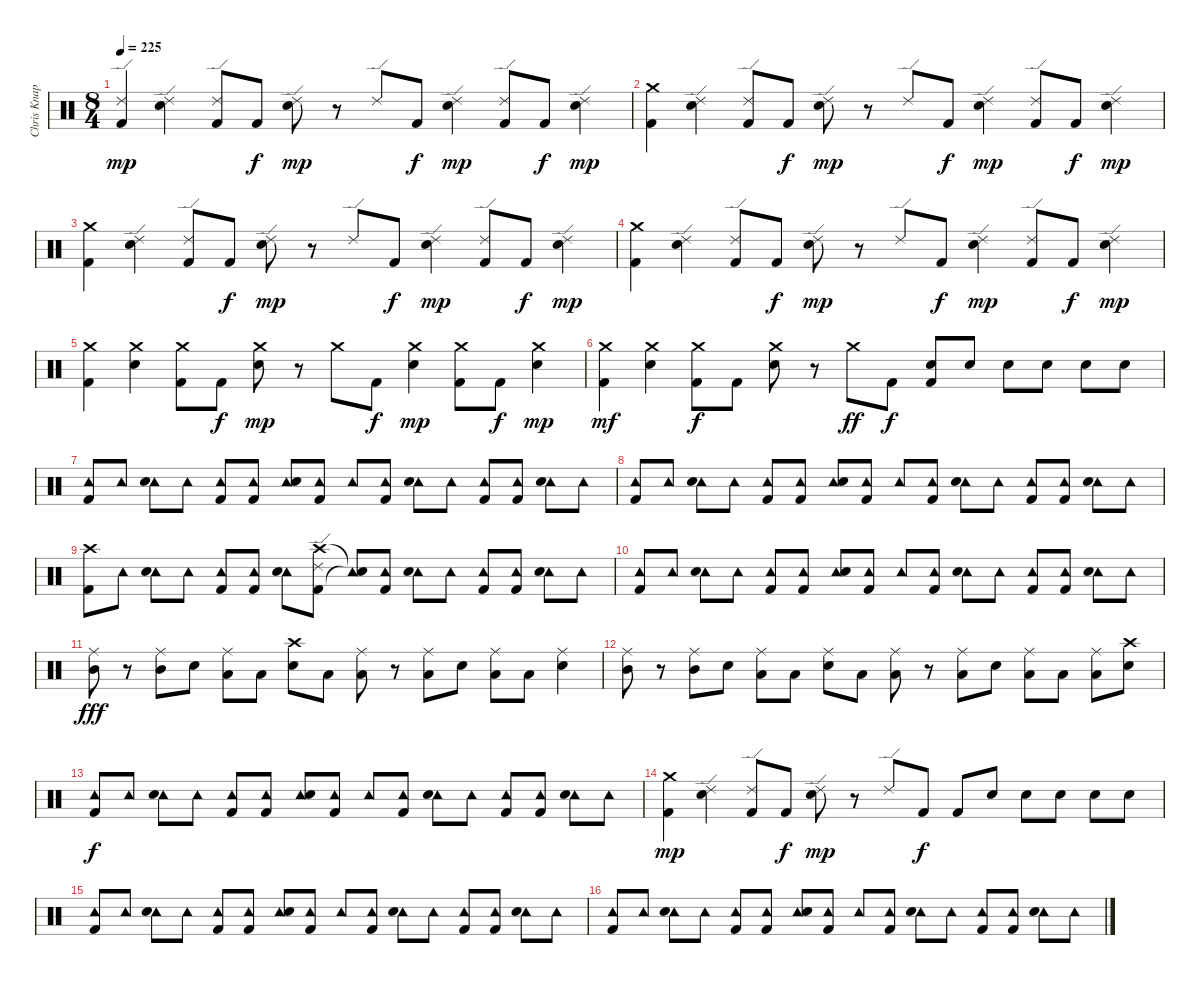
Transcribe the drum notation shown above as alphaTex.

\track ("Chris Knapp" "Chris Knap") {instrument percussion}
\staff {score}
\articulation defaults
\ts (8 4)
\tempo 225
\clef neutral
\ks c
("Ride (edge) 2" "Kick (hit) 2").4{dy mp} ("Ride (edge) 2" "Electric Snare (hit)").4 ("Ride (edge) 2" "Kick (hit) 2").8 "Kick (hit) 2".8{dy f} ("Ride (edge) 2" "Electric Snare (hit)").8{dy mp} r.8 "Ride (edge) 2".8 "Kick (hit) 2".8{dy f} ("Ride (edge) 2" "Electric Snare (hit)").4{dy mp} ("Ride (edge) 2" "Kick (hit) 2").8 "Kick (hit) 2".8{dy f} ("Ride (edge) 2" "Electric Snare (hit)").4{dy mp} |
("Crash medium (hit)" "Kick (hit) 2").4 ("Ride (edge) 2" "Electric Snare (hit)").4 ("Ride (edge) 2" "Kick (hit) 2").8 "Kick (hit) 2".8{dy f} ("Ride (edge) 2" "Electric Snare (hit)").8{dy mp} r.8 "Ride (edge) 2".8 "Kick (hit) 2".8{dy f} ("Ride (edge) 2" "Electric Snare (hit)").4{dy mp} ("Ride (edge) 2" "Kick (hit) 2").8 "Kick (hit) 2".8{dy f} ("Ride (edge) 2" "Electric Snare (hit)").4{dy mp} |
("Crash medium (hit)" "Kick (hit) 2").4 ("Ride (edge) 2" "Electric Snare (hit)").4 ("Ride (edge) 2" "Kick (hit) 2").8 "Kick (hit) 2".8{dy f} ("Ride (edge) 2" "Electric Snare (hit)").8{dy mp} r.8 "Ride (edge) 2".8 "Kick (hit) 2".8{dy f} ("Ride (edge) 2" "Electric Snare (hit)").4{dy mp} ("Ride (edge) 2" "Kick (hit) 2").8 "Kick (hit) 2".8{dy f} ("Ride (edge) 2" "Electric Snare (hit)").4{dy mp} |
("Crash medium (hit)" "Kick (hit) 2").4 ("Ride (edge) 2" "Electric Snare (hit)").4 ("Ride (edge) 2" "Kick (hit) 2").8 "Kick (hit) 2".8{dy f} ("Ride (edge) 2" "Electric Snare (hit)").8{dy mp} r.8 "Ride (edge) 2".8 "Kick (hit) 2".8{dy f} ("Ride (edge) 2" "Electric Snare (hit)").4{dy mp} ("Ride (edge) 2" "Kick (hit) 2").8 "Kick (hit) 2".8{dy f} ("Ride (edge) 2" "Electric Snare (hit)").4{dy mp} |
("Crash medium (hit)" "Kick (hit) 2").4 ("Crash medium (hit)" "Electric Snare (hit)").4 ("Crash medium (hit)" "Kick (hit) 2").8 "Kick (hit) 2".8{dy f} ("Crash medium (hit)" "Electric Snare (hit)").8{dy mp} r.8 "Crash medium (hit)".8 "Kick (hit) 2".8{dy f} ("Crash medium (hit)" "Electric Snare (hit)").4{dy mp} ("Crash medium (hit)" "Kick (hit) 2").8 "Kick (hit) 2".8{dy f} ("Crash medium (hit)" "Electric Snare (hit)").4{dy mp} |
("Crash medium (hit)" "Kick (hit) 2").4{dy mf} ("Crash medium (hit)" "Electric Snare (hit)").4 ("Crash medium (hit)" "Kick (hit) 2").8{dy f} "Kick (hit) 2".8 ("Crash medium (hit)" "Electric Snare (hit)").8 r.8 "Crash medium (hit)".8{dy ff} "Kick (hit) 2".8{dy f} ("Electric Snare (hit)" "Kick (hit) 2").8 "Electric Snare (hit)".8 "Electric Snare (hit)".8 "Electric Snare (hit)".8 "Electric Snare (hit)".8 "Electric Snare (hit)".8 |
("Tambourine (hit)" "Kick (hit) 2").8 "Tambourine (hit)".8 ("Tambourine (hit)" "Electric Snare (hit)").8 "Tambourine (hit)".8 ("Tambourine (hit)" "Kick (hit) 2").8 ("Tambourine (hit)" "Kick (hit) 2").8 ("Tambourine (hit)" "Electric Snare (hit)").8 ("Tambourine (hit)" "Kick (hit) 2").8 "Tambourine (hit)".8 ("Tambourine (hit)" "Kick (hit) 2").8 ("Tambourine (hit)" "Electric Snare (hit)").8 "Tambourine (hit)".8 ("Tambourine (hit)" "Kick (hit) 2").8 ("Tambourine (hit)" "Kick (hit) 2").8 ("Tambourine (hit)" "Electric Snare (hit)").8 "Tambourine (hit)".8 |
("Tambourine (hit)" "Kick (hit) 2").8 "Tambourine (hit)".8 ("Tambourine (hit)" "Electric Snare (hit)").8 "Tambourine (hit)".8 ("Tambourine (hit)" "Kick (hit) 2").8 ("Tambourine (hit)" "Kick (hit) 2").8 ("Tambourine (hit)" "Electric Snare (hit)").8 ("Tambourine (hit)" "Kick (hit) 2").8 "Tambourine (hit)".8 ("Tambourine (hit)" "Kick (hit) 2").8 ("Tambourine (hit)" "Electric Snare (hit)").8 "Tambourine (hit)".8 ("Tambourine (hit)" "Kick (hit) 2").8 ("Tambourine (hit)" "Kick (hit) 2").8 ("Tambourine (hit)" "Electric Snare (hit)").8 "Tambourine (hit)".8 |
("Crash high (hit)" "Kick (hit) 2").8 "Tambourine (hit)".8 ("Tambourine (hit)" "Electric Snare (hit)").8 "Tambourine (hit)".8 ("Tambourine (hit)" "Kick (hit) 2").8 ("Tambourine (hit)" "Kick (hit) 2").8 ("Tambourine (hit)" "Electric Snare (hit)").8 ("Crash high (hit)" "Kick (hit) 2" "Ride (edge) 2").8 ("Tambourine (hit)"{t} "Snare (hit)"{t}).8 ("Tambourine (hit)" "Kick (hit) 2").8 ("Tambourine (hit)" "Electric Snare (hit)").8 "Tambourine (hit)".8 ("Tambourine (hit)" "Kick (hit) 2").8 ("Tambourine (hit)" "Kick (hit) 2").8 ("Tambourine (hit)" "Electric Snare (hit)").8 "Tambourine (hit)".8 |
("Tambourine (hit)" "Kick (hit) 2").8 "Tambourine (hit)".8 ("Tambourine (hit)" "Electric Snare (hit)").8 "Tambourine (hit)".8 ("Tambourine (hit)" "Kick (hit) 2").8 ("Tambourine (hit)" "Kick (hit) 2").8 ("Tambourine (hit)" "Electric Snare (hit)").8 ("Tambourine (hit)" "Kick (hit) 2").8 "Tambourine (hit)".8 ("Tambourine (hit)" "Kick (hit) 2").8 ("Tambourine (hit)" "Electric Snare (hit)").8 "Tambourine (hit)".8 ("Tambourine (hit)" "Kick (hit) 2").8 ("Tambourine (hit)" "Kick (hit) 2").8 ("Tambourine (hit)" "Electric Snare (hit)").8 "Tambourine (hit)".8 |
("Ride (middle)" "Mid Tom (hit)").8{dy fff} r.8 ("Ride (middle)" "Mid Tom (hit)").8 "Electric Snare (hit)".8 ("Ride (middle)" "Low Floor Tom (hit)").8 "Low Floor Tom (hit)".8 ("Crash high (hit)" "Electric Snare (hit)").8 "Low Floor Tom (hit)".8 ("Ride (middle)" "Low Floor Tom (hit)").8 r.8 ("Ride (middle)" "Low Floor Tom (hit)").8 "Electric Snare (hit)".8 ("Ride (middle)" "Low Floor Tom (hit)").8 "Low Floor Tom (hit)".8 ("Ride (middle)" "Electric Snare (hit)").4 |
("Ride (middle)" "Mid Tom (hit)").8 r.8 ("Ride (middle)" "Mid Tom (hit)").8 "Electric Snare (hit)".8 ("Ride (middle)" "Low Floor Tom (hit)").8 "Low Floor Tom (hit)".8 ("Ride (middle)" "Electric Snare (hit)").8 "Low Floor Tom (hit)".8 ("Ride (middle)" "Low Floor Tom (hit)").8 r.8 ("Ride (middle)" "Low Floor Tom (hit)").8 "Electric Snare (hit)".8 ("Ride (middle)" "Low Floor Tom (hit)").8 "Low Floor Tom (hit)".8 ("Ride (middle)" "Low Floor Tom (hit)").8 ("Electric Snare (hit)" "Crash high (hit)").8 |
("Tambourine (hit)" "Kick (hit) 2").8{dy f} "Tambourine (hit)".8 ("Tambourine (hit)" "Electric Snare (hit)").8 "Tambourine (hit)".8 ("Tambourine (hit)" "Kick (hit) 2").8 ("Tambourine (hit)" "Kick (hit) 2").8 ("Tambourine (hit)" "Electric Snare (hit)").8 ("Tambourine (hit)" "Kick (hit) 2").8 "Tambourine (hit)".8 ("Tambourine (hit)" "Kick (hit) 2").8 ("Tambourine (hit)" "Electric Snare (hit)").8 "Tambourine (hit)".8 ("Tambourine (hit)" "Kick (hit) 2").8 ("Tambourine (hit)" "Kick (hit) 2").8 ("Tambourine (hit)" "Electric Snare (hit)").8 "Tambourine (hit)".8 |
("Crash medium (hit)" "Kick (hit) 2").4{dy mp} ("Ride (edge) 2" "Electric Snare (hit)").4 ("Ride (edge) 2" "Kick (hit) 2").8 "Kick (hit) 2".8{dy f} ("Ride (edge) 2" "Electric Snare (hit)").8{dy mp} r.8 "Ride (edge) 2".8 "Kick (hit) 2".8{dy f} "Kick (hit) 2".8 "Electric Snare (hit)".8 "Electric Snare (hit)".8 "Electric Snare (hit)".8 "Electric Snare (hit)".8 "Electric Snare (hit)".8 |
("Tambourine (hit)" "Kick (hit) 2").8 "Tambourine (hit)".8 ("Tambourine (hit)" "Electric Snare (hit)").8 "Tambourine (hit)".8 ("Tambourine (hit)" "Kick (hit) 2").8 ("Tambourine (hit)" "Kick (hit) 2").8 ("Tambourine (hit)" "Electric Snare (hit)").8 ("Tambourine (hit)" "Kick (hit) 2").8 "Tambourine (hit)".8 ("Tambourine (hit)" "Kick (hit) 2").8 ("Tambourine (hit)" "Electric Snare (hit)").8 "Tambourine (hit)".8 ("Tambourine (hit)" "Kick (hit) 2").8 ("Tambourine (hit)" "Kick (hit) 2").8 ("Tambourine (hit)" "Electric Snare (hit)").8 "Tambourine (hit)".8 |
("Tambourine (hit)" "Kick (hit) 2").8 "Tambourine (hit)".8 ("Tambourine (hit)" "Electric Snare (hit)").8 "Tambourine (hit)".8 ("Tambourine (hit)" "Kick (hit) 2").8 ("Tambourine (hit)" "Kick (hit) 2").8 ("Tambourine (hit)" "Electric Snare (hit)").8 ("Tambourine (hit)" "Kick (hit) 2").8 "Tambourine (hit)".8 ("Tambourine (hit)" "Kick (hit) 2").8 ("Tambourine (hit)" "Electric Snare (hit)").8 "Tambourine (hit)".8 ("Tambourine (hit)" "Kick (hit) 2").8 ("Tambourine (hit)" "Kick (hit) 2").8 ("Tambourine (hit)" "Electric Snare (hit)").8 "Tambourine (hit)".8
